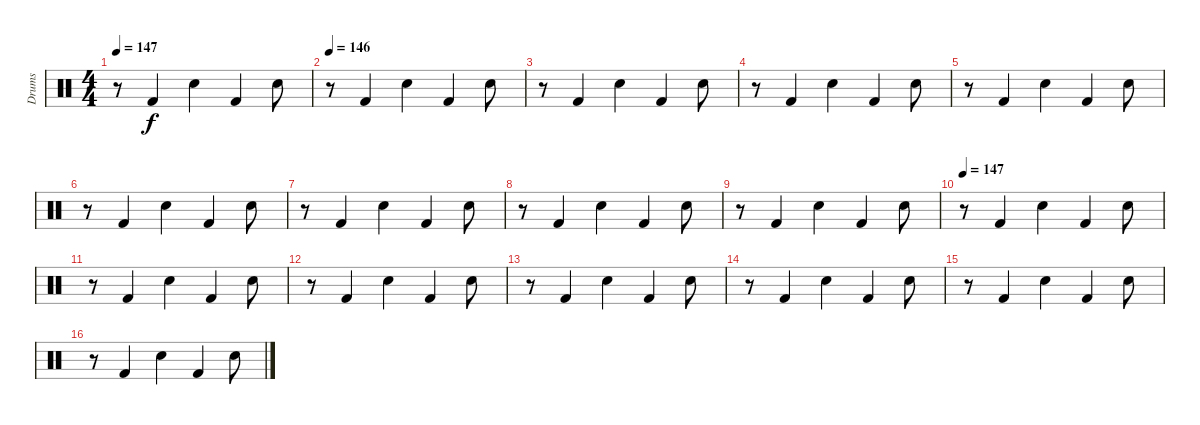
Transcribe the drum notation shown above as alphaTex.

\track ("Drums" "Drums") {instrument percussion}
\staff {score}
\articulation defaults
\ts (4 4)
\tempo 147
\clef neutral
\ks c
r.8{dy f} "Kick (hit) 2".4 "Snare (hit) 2".4 "Kick (hit) 2".4 "Snare (hit) 2".8 |
\tempo 146
r.8 "Kick (hit) 2".4 "Snare (hit) 2".4 "Kick (hit) 2".4 "Snare (hit) 2".8 |
r.8 "Kick (hit) 2".4 "Snare (hit) 2".4 "Kick (hit) 2".4 "Snare (hit) 2".8 |
r.8 "Kick (hit) 2".4 "Snare (hit) 2".4 "Kick (hit) 2".4 "Snare (hit) 2".8 |
r.8 "Kick (hit) 2".4 "Snare (hit) 2".4 "Kick (hit) 2".4 "Snare (hit) 2".8 |
r.8 "Kick (hit) 2".4 "Snare (hit) 2".4 "Kick (hit) 2".4 "Snare (hit) 2".8 |
r.8 "Kick (hit) 2".4 "Snare (hit) 2".4 "Kick (hit) 2".4 "Snare (hit) 2".8 |
r.8 "Kick (hit) 2".4 "Snare (hit) 2".4 "Kick (hit) 2".4 "Snare (hit) 2".8 |
r.8 "Kick (hit) 2".4 "Snare (hit) 2".4 "Kick (hit) 2".4 "Snare (hit) 2".8 |
\tempo 147
r.8 "Kick (hit) 2".4 "Snare (hit) 2".4 "Kick (hit) 2".4 "Snare (hit) 2".8 |
r.8 "Kick (hit) 2".4 "Snare (hit) 2".4 "Kick (hit) 2".4 "Snare (hit) 2".8 |
r.8 "Kick (hit) 2".4 "Snare (hit) 2".4 "Kick (hit) 2".4 "Snare (hit) 2".8 |
r.8 "Kick (hit) 2".4 "Snare (hit) 2".4 "Kick (hit) 2".4 "Snare (hit) 2".8 |
r.8 "Kick (hit) 2".4 "Snare (hit) 2".4 "Kick (hit) 2".4 "Snare (hit) 2".8 |
r.8 "Kick (hit) 2".4 "Snare (hit) 2".4 "Kick (hit) 2".4 "Snare (hit) 2".8 |
r.8 "Kick (hit) 2".4 "Snare (hit) 2".4 "Kick (hit) 2".4 "Snare (hit) 2".8
